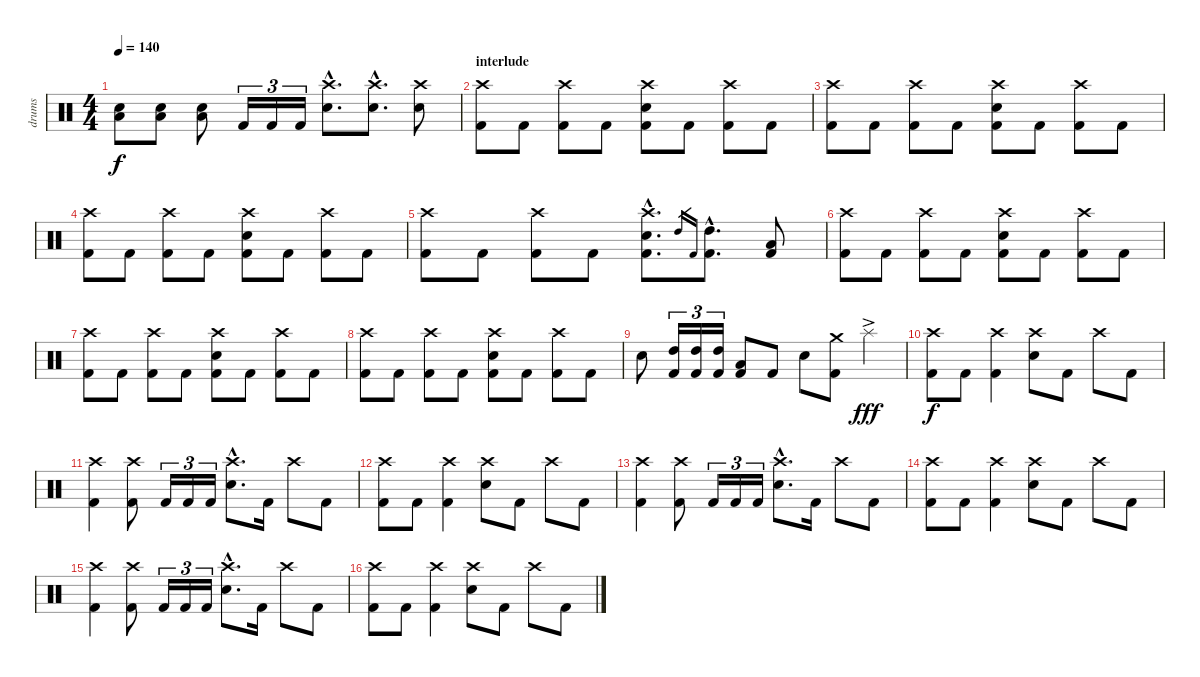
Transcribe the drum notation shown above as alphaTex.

\track ("drums" "drums") {instrument percussion}
\staff {score}
\articulation defaults
\ts (4 4)
\tempo 140
\clef neutral
\ks c
("Electric Snare (hit)" "Low Floor Tom (hit)").8{dy f} ("Electric Snare (hit)" "Low Floor Tom (hit)").8 ("Electric Snare (hit)" "Low Floor Tom (hit)").8 "Kick (hit) 2".16{tu (3 2)} "Kick (hit) 2".16{tu (3 2)} "Kick (hit) 2".16{tu (3 2)} ("Crash high (hit)"{hac} "Electric Snare (hit)"{hac}).8{d} ("Crash high (hit)"{hac} "Electric Snare (hit)"{hac}).8{d} ("Crash high (hit)" "Electric Snare (hit)").8 |
\section ("" "interlude")
("Crash high (hit)" "Kick (hit) 2").8 "Kick (hit) 2".8 ("Crash high (hit)" "Kick (hit) 2").8 "Kick (hit) 2".8 ("Crash high (hit)" "Electric Snare (hit)" "Kick (hit) 2").8 "Kick (hit) 2".8 ("Crash high (hit)" "Kick (hit) 2").8 "Kick (hit) 2".8 |
("Crash high (hit)" "Kick (hit) 2").8 "Kick (hit) 2".8 ("Crash high (hit)" "Kick (hit) 2").8 "Kick (hit) 2".8 ("Crash high (hit)" "Electric Snare (hit)" "Kick (hit) 2").8 "Kick (hit) 2".8 ("Crash high (hit)" "Kick (hit) 2").8 "Kick (hit) 2".8 |
("Crash high (hit)" "Kick (hit) 2").8 "Kick (hit) 2".8 ("Crash high (hit)" "Kick (hit) 2").8 "Kick (hit) 2".8 ("Crash high (hit)" "Electric Snare (hit)" "Kick (hit) 2").8 "Kick (hit) 2".8 ("Crash high (hit)" "Kick (hit) 2").8 "Kick (hit) 2".8 |
("Crash high (hit)" "Kick (hit) 2").8 "Kick (hit) 2".8 ("Crash high (hit)" "Kick (hit) 2").8 "Kick (hit) 2".8 ("Crash high (hit)"{hac} "Electric Snare (hit)"{hac} "Kick (hit) 2"{hac}).8{d} "High Tom (hit)".16{gr} "Kick (hit) 2".16{gr} ("High Tom (hit)"{hac} "Kick (hit) 2"{hac}).8{d} ("Low Tom (hit)" "Kick (hit) 2").8 |
("Crash high (hit)" "Kick (hit) 2").8 "Kick (hit) 2".8 ("Crash high (hit)" "Kick (hit) 2").8 "Kick (hit) 2".8 ("Crash high (hit)" "Electric Snare (hit)" "Kick (hit) 2").8 "Kick (hit) 2".8 ("Crash high (hit)" "Kick (hit) 2").8 "Kick (hit) 2".8 |
("Crash high (hit)" "Kick (hit) 2").8 "Kick (hit) 2".8 ("Crash high (hit)" "Kick (hit) 2").8 "Kick (hit) 2".8 ("Crash high (hit)" "Electric Snare (hit)" "Kick (hit) 2").8 "Kick (hit) 2".8 ("Crash high (hit)" "Kick (hit) 2").8 "Kick (hit) 2".8 |
("Crash high (hit)" "Kick (hit) 2").8 "Kick (hit) 2".8 ("Crash high (hit)" "Kick (hit) 2").8 "Kick (hit) 2".8 ("Crash high (hit)" "Electric Snare (hit)" "Kick (hit) 2").8 "Kick (hit) 2".8 ("Crash high (hit)" "Kick (hit) 2").8 "Kick (hit) 2".8 |
"Electric Snare (hit)".8 ("High Tom (hit)" "Kick (hit) 2").16{tu (3 2)} ("High Tom (hit)" "Kick (hit) 2").16{tu (3 2)} ("High Tom (hit)" "Kick (hit) 2").16{tu (3 2)} ("Low Tom (hit)" "Kick (hit) 2").8 "Kick (hit) 2".8 "Electric Snare (hit)".8 ("Crash medium (hit)" "Kick (hit) 2").8 "Splash (hit)"{ac}.4{dy fff} |
\section ("" "")
("Crash high (hit)" "Kick (hit) 2").8{dy f} "Kick (hit) 2".8 ("Crash high (hit)" "Kick (hit) 2").4 ("Crash high (hit)" "Electric Snare (hit)").8 "Kick (hit) 2".8 "Crash high (hit)".8 "Kick (hit) 2".8 |
("Crash high (hit)" "Kick (hit) 2").4 ("Crash high (hit)" "Kick (hit) 2").8 "Kick (hit) 2".16{tu (3 2)} "Kick (hit) 2".16{tu (3 2)} "Kick (hit) 2".16{tu (3 2)} ("Crash high (hit)"{hac} "Electric Snare (hit)"{hac}).8{d} "Kick (hit) 2".16 "Crash high (hit)".8 "Kick (hit) 2".8 |
("Crash high (hit)" "Kick (hit) 2").8 "Kick (hit) 2".8 ("Crash high (hit)" "Kick (hit) 2").4 ("Crash high (hit)" "Electric Snare (hit)").8 "Kick (hit) 2".8 "Crash high (hit)".8 "Kick (hit) 2".8 |
("Crash high (hit)" "Kick (hit) 2").4 ("Crash high (hit)" "Kick (hit) 2").8 "Kick (hit) 2".16{tu (3 2)} "Kick (hit) 2".16{tu (3 2)} "Kick (hit) 2".16{tu (3 2)} ("Crash high (hit)"{hac} "Electric Snare (hit)"{hac}).8{d} "Kick (hit) 2".16 "Crash high (hit)".8 "Kick (hit) 2".8 |
("Crash high (hit)" "Kick (hit) 2").8 "Kick (hit) 2".8 ("Crash high (hit)" "Kick (hit) 2").4 ("Crash high (hit)" "Electric Snare (hit)").8 "Kick (hit) 2".8 "Crash high (hit)".8 "Kick (hit) 2".8 |
("Crash high (hit)" "Kick (hit) 2").4 ("Crash high (hit)" "Kick (hit) 2").8 "Kick (hit) 2".16{tu (3 2)} "Kick (hit) 2".16{tu (3 2)} "Kick (hit) 2".16{tu (3 2)} ("Crash high (hit)"{hac} "Electric Snare (hit)"{hac}).8{d} "Kick (hit) 2".16 "Crash high (hit)".8 "Kick (hit) 2".8 |
("Crash high (hit)" "Kick (hit) 2").8 "Kick (hit) 2".8 ("Crash high (hit)" "Kick (hit) 2").4 ("Crash high (hit)" "Electric Snare (hit)").8 "Kick (hit) 2".8 "Crash high (hit)".8 "Kick (hit) 2".8
